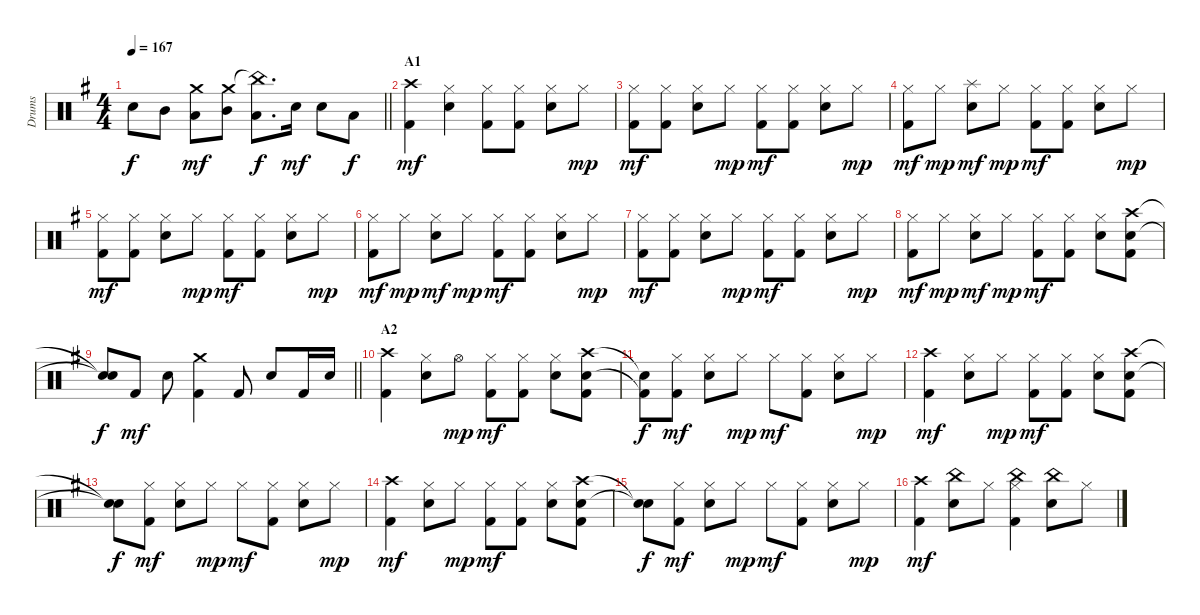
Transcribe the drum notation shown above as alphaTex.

\track ("Drums" "Drums") {instrument percussion}
\staff {score}
\articulation defaults
\ts (4 4)
\tempo 167
\clef neutral
\barLineRight lightlight
\ks g "Snare (hit)"{t}.8{dy f} "Mid Tom (hit)".8
("Crash medium (hit)" "Low Tom (hit)").8{dy mf} ("Crash medium (hit)" "Mid Tom (hit)").8 ("China (hit)"{t} "Low Tom (hit)").8{d dy f} "Electric Snare (hit)".16{dy mf} "Electric Snare (hit)".8 "Low Tom (hit)".8{dy f} |
\section ("" "A1")
("Crash high (hit)" "Kick (hit) 2").4{dy mf} ("Hi-Hat (closed)" "Electric Snare (hit)").4 ("Hi-Hat (closed)" "Kick (hit) 2").8 ("Hi-Hat (closed)" "Kick (hit) 2").8 ("Hi-Hat (closed)" "Electric Snare (hit)").8 "Hi-Hat (closed)".8{dy mp} |
("Hi-Hat (closed)" "Kick (hit) 2").8{dy mf} ("Hi-Hat (closed)" "Kick (hit) 2").8 ("Hi-Hat (closed)" "Electric Snare (hit)").8 "Hi-Hat (closed)".8{dy mp} ("Hi-Hat (closed)" "Kick (hit) 2").8{dy mf} ("Hi-Hat (closed)" "Kick (hit) 2").8 ("Hi-Hat (closed)" "Electric Snare (hit)").8 "Hi-Hat (closed)".8{dy mp} |
("Hi-Hat (closed)" "Kick (hit) 2").8{dy mf} "Hi-Hat (closed)".8{dy mp} ("Splash (hit)" "Electric Snare (hit)").8{dy mf} "Hi-Hat (closed)".8{dy mp} ("Hi-Hat (closed)" "Kick (hit) 2").8{dy mf} ("Hi-Hat (closed)" "Kick (hit) 2").8 ("Hi-Hat (closed)" "Electric Snare (hit)").8 "Hi-Hat (closed)".8{dy mp} |
("Hi-Hat (closed)" "Kick (hit) 2").8{dy mf} ("Hi-Hat (closed)" "Kick (hit) 2").8 ("Hi-Hat (closed)" "Electric Snare (hit)").8 "Hi-Hat (closed)".8{dy mp} ("Hi-Hat (closed)" "Kick (hit) 2").8{dy mf} ("Hi-Hat (closed)" "Kick (hit) 2").8 ("Hi-Hat (closed)" "Electric Snare (hit)").8 "Hi-Hat (closed)".8{dy mp} |
("Hi-Hat (closed)" "Kick (hit) 2").8{dy mf} "Hi-Hat (closed)".8{dy mp} ("Hi-Hat (closed)" "Electric Snare (hit)").8{dy mf} "Hi-Hat (closed)".8{dy mp} ("Hi-Hat (closed)" "Kick (hit) 2").8{dy mf} ("Hi-Hat (closed)" "Kick (hit) 2").8 ("Hi-Hat (closed)" "Electric Snare (hit)").8 "Hi-Hat (closed)".8{dy mp} |
("Hi-Hat (closed)" "Kick (hit) 2").8{dy mf} ("Hi-Hat (closed)" "Kick (hit) 2").8 ("Hi-Hat (closed)" "Electric Snare (hit)").8 "Hi-Hat (closed)".8{dy mp} ("Hi-Hat (closed)" "Kick (hit) 2").8{dy mf} ("Hi-Hat (closed)" "Kick (hit) 2").8 ("Hi-Hat (closed)" "Electric Snare (hit)").8 "Hi-Hat (closed)".8{dy mp} |
("Hi-Hat (closed)" "Kick (hit) 2").8{dy mf} "Hi-Hat (closed)".8{dy mp} ("Hi-Hat (closed)" "Electric Snare (hit)").8{dy mf} "Hi-Hat (closed)".8{dy mp} ("Hi-Hat (closed)" "Kick (hit) 2").8{dy mf} ("Hi-Hat (closed)" "Kick (hit) 2").8 ("Hi-Hat (closed)" "Electric Snare (hit)").8 ("Crash high (hit)" "Electric Snare (hit)" "Kick (hit) 2").8 |
\barLineRight lightlight
("Snare (hit)"{t} "Snare (hit)"{t}).8{dy f} "Kick (hit) 2".8{dy mf} "Electric Snare (hit)".8 ("Crash medium (hit)" "Kick (hit) 2").4 "Kick (hit) 2".8 "Electric Snare (hit)".8 "Kick (hit) 2".16 "Electric Snare (hit)".16 |
\section ("" "A2")
("Crash high (hit)" "Kick (hit) 2").4 ("Hi-Hat (closed)" "Electric Snare (hit)").8 "Hi-Hat (open)".8{dy mp} ("Hi-Hat (closed)" "Kick (hit) 2").8{dy mf} ("Hi-Hat (closed)" "Kick (hit) 2").8 ("Hi-Hat (closed)" "Electric Snare (hit)").8 ("Crash high (hit)" "Electric Snare (hit)" "Kick (hit) 2").8 |
("Snare (hit)"{t} "Kick (hit) 2"{t}).8{dy f} ("Hi-Hat (closed)" "Kick (hit) 2").8{dy mf} ("Hi-Hat (closed)" "Electric Snare (hit)").8 "Hi-Hat (closed)".8{dy mp} "Hi-Hat (closed)".8{dy mf} ("Hi-Hat (closed)" "Kick (hit) 2").8 ("Hi-Hat (closed)" "Electric Snare (hit)").8 "Hi-Hat (closed)".8{dy mp} |
("Crash high (hit)" "Kick (hit) 2").4{dy mf} ("Hi-Hat (closed)" "Electric Snare (hit)").8 "Hi-Hat (closed)".8{dy mp} ("Hi-Hat (closed)" "Kick (hit) 2").8{dy mf} ("Hi-Hat (closed)" "Kick (hit) 2").8 ("Hi-Hat (closed)" "Electric Snare (hit)").8 ("Crash high (hit)" "Electric Snare (hit)" "Kick (hit) 2").8 |
("Snare (hit)"{t} "Snare (hit)"{t}).8{dy f} ("Hi-Hat (closed)" "Kick (hit) 2").8{dy mf} ("Hi-Hat (closed)" "Electric Snare (hit)").8 "Hi-Hat (closed)".8{dy mp} "Hi-Hat (closed)".8{dy mf} ("Hi-Hat (closed)" "Kick (hit) 2").8 ("Hi-Hat (closed)" "Electric Snare (hit)").8 "Hi-Hat (closed)".8{dy mp} |
("Crash high (hit)" "Kick (hit) 2").4{dy mf} ("Hi-Hat (closed)" "Electric Snare (hit)").8 "Hi-Hat (closed)".8{dy mp} ("Hi-Hat (closed)" "Kick (hit) 2").8{dy mf} ("Hi-Hat (closed)" "Kick (hit) 2").8 ("Hi-Hat (closed)" "Electric Snare (hit)").8 ("Crash high (hit)" "Electric Snare (hit)" "Kick (hit) 2").8 |
("Snare (hit)"{t} "Snare (hit)"{t}).8{dy f} ("Hi-Hat (closed)" "Kick (hit) 2").8{dy mf} ("Hi-Hat (closed)" "Electric Snare (hit)").8 "Hi-Hat (closed)".8{dy mp} "Hi-Hat (closed)".8{dy mf} ("Hi-Hat (closed)" "Kick (hit) 2").8 ("Hi-Hat (closed)" "Electric Snare (hit)").8 "Hi-Hat (closed)".8{dy mp} |
("Crash high (hit)" "Kick (hit) 2").4{dy mf} ("China (hit)" "Electric Snare (hit)").8 "Hi-Hat (closed)".8 ("China (hit)" "Hi-Hat (closed)" "Kick (hit) 2").4 ("China (hit)" "Electric Snare (hit)").8 "Hi-Hat (closed)".8
